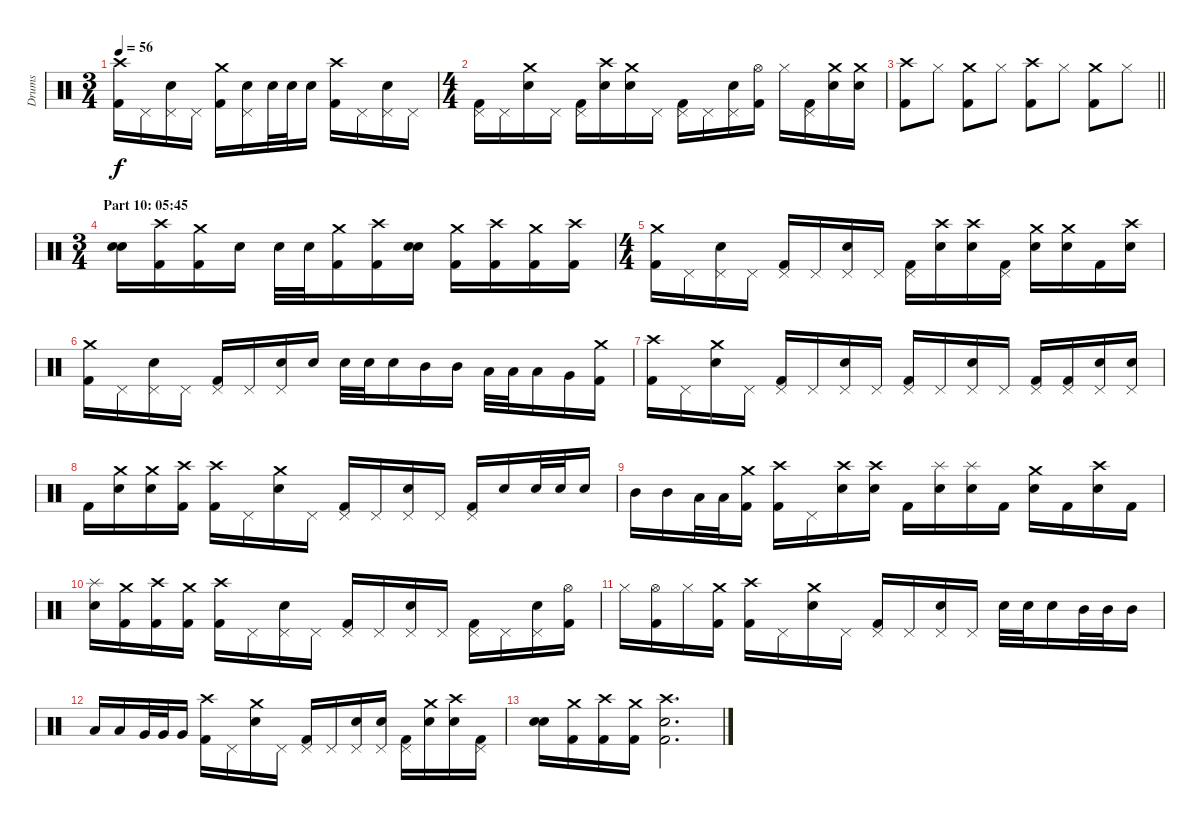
\track ("Drums" "Drums") {instrument percussion}
\staff {score}
\articulation defaults
\ts (3 4)
\tempo 56
\clef neutral
\ks c
("Crash high (hit)" "Kick (hit) 2").16{dy f} "Pedal Hi-Hat (hit)".16 ("Pedal Hi-Hat (hit)" "Electric Snare (hit)").16 "Pedal Hi-Hat (hit)".16 ("Crash medium (hit)" "Kick (hit) 2").16 ("Pedal Hi-Hat (hit)" "Electric Snare (hit)").16 "Electric Snare (hit)".32 "Electric Snare (hit)".32 "Electric Snare (hit)".16 ("Crash high (hit)" "Kick (hit) 2").16 "Pedal Hi-Hat (hit)".16 ("Pedal Hi-Hat (hit)" "Electric Snare (hit)").16 "Pedal Hi-Hat (hit)".16 |
\ts (4 4)
("Pedal Hi-Hat (hit)" "Kick (hit) 2").16 "Pedal Hi-Hat (hit)".16 ("Crash medium (hit)" "Electric Snare (hit)").16 "Pedal Hi-Hat (hit)".16 ("Pedal Hi-Hat (hit)" "Kick (hit) 2").16 ("Crash high (hit)" "Electric Snare (hit)").16 ("Crash medium (hit)" "Electric Snare (hit)").16 "Pedal Hi-Hat (hit)".16 ("Pedal Hi-Hat (hit)" "Kick (hit) 2").16 "Pedal Hi-Hat (hit)".16 ("Pedal Hi-Hat (hit)" "Electric Snare (hit)").16 ("Hi-Hat (open)" "Kick (hit) 2").16 "Hi-Hat (closed)".16 ("Pedal Hi-Hat (hit)" "Kick (hit) 2").16 ("Crash medium (hit)" "Electric Snare (hit)").16 ("Crash medium (hit)" "Electric Snare (hit)").16 |
\barLineRight lightlight
("Crash high (hit)" "Kick (hit) 2").8 "Hi-Hat (closed)".8 ("Crash medium (hit)" "Kick (hit) 2").8 "Hi-Hat (closed)".8 ("Crash high (hit)" "Kick (hit) 2").8 "Hi-Hat (closed)".8 ("Crash medium (hit)" "Kick (hit) 2").8 "Hi-Hat (closed)".8 |
\ts (3 4)
\section ("" "Part 10: 05:45")
("Electric Snare (hit)" "Electric Snare (hit)").16{bd 60} ("Crash high (hit)" "Kick (hit) 2").16 ("Crash medium (hit)" "Kick (hit) 2").16 "Electric Snare (hit)".16 "Electric Snare (hit)".32 "Electric Snare (hit)".32 ("Crash medium (hit)" "Kick (hit) 2").16 ("Crash high (hit)" "Kick (hit) 2").16 ("Electric Snare (hit)" "Electric Snare (hit)").16{bd 60} ("Crash medium (hit)" "Kick (hit) 2").16 ("Crash high (hit)" "Kick (hit) 2").16 ("Crash medium (hit)" "Kick (hit) 2").16 ("Crash high (hit)" "Kick (hit) 2").16 |
\ts (4 4)
("Crash medium (hit)" "Kick (hit) 2").16 "Pedal Hi-Hat (hit)".16 ("Pedal Hi-Hat (hit)" "Electric Snare (hit)").16 "Pedal Hi-Hat (hit)".16 ("Pedal Hi-Hat (hit)" "Kick (hit) 2").16 "Pedal Hi-Hat (hit)".16 ("Pedal Hi-Hat (hit)" "Electric Snare (hit)").16 "Pedal Hi-Hat (hit)".16 ("Pedal Hi-Hat (hit)" "Kick (hit) 2").16 ("Crash high (hit)" "Electric Snare (hit)").16 ("Crash high (hit)" "Electric Snare (hit)").16 ("Pedal Hi-Hat (hit)" "Kick (hit) 2").16 ("Crash medium (hit)" "Electric Snare (hit)").16 ("Crash medium (hit)" "Electric Snare (hit)").16 "Kick (hit) 2".16 ("Crash high (hit)" "Electric Snare (hit)").16 |
("Crash medium (hit)" "Kick (hit) 2").16 "Pedal Hi-Hat (hit)".16 ("Pedal Hi-Hat (hit)" "Electric Snare (hit)").16 "Pedal Hi-Hat (hit)".16 ("Pedal Hi-Hat (hit)" "Kick (hit) 2").16 "Pedal Hi-Hat (hit)".16 ("Pedal Hi-Hat (hit)" "Electric Snare (hit)").16 "Electric Snare (hit)".16 "Electric Snare (hit)".32 "Electric Snare (hit)".32 "Electric Snare (hit)".16 "Mid Tom (hit)".16 "Mid Tom (hit)".16 "Low Tom (hit)".32 "Low Tom (hit)".32 "Low Tom (hit)".16 "Very Low Tom (hit)".16 ("Crash medium (hit)" "Kick (hit) 2").16 |
("Crash high (hit)" "Kick (hit) 2").16 "Pedal Hi-Hat (hit)".16 ("Crash medium (hit)" "Electric Snare (hit)").16 "Pedal Hi-Hat (hit)".16 ("Pedal Hi-Hat (hit)" "Kick (hit) 2").16 "Pedal Hi-Hat (hit)".16 ("Pedal Hi-Hat (hit)" "Electric Snare (hit)").16 "Pedal Hi-Hat (hit)".16 ("Pedal Hi-Hat (hit)" "Kick (hit) 2").16 "Pedal Hi-Hat (hit)".16 ("Pedal Hi-Hat (hit)" "Electric Snare (hit)").16 "Pedal Hi-Hat (hit)".16 ("Pedal Hi-Hat (hit)" "Kick (hit) 2").16 ("Pedal Hi-Hat (hit)" "Kick (hit) 2").16 ("Pedal Hi-Hat (hit)" "Electric Snare (hit)").16 ("Pedal Hi-Hat (hit)" "Electric Snare (hit)").16 |
"Kick (hit) 2".16 ("Crash medium (hit)" "Electric Snare (hit)").16 ("Crash medium (hit)" "Electric Snare (hit)").16 ("Crash high (hit)" "Kick (hit) 2").16 ("Crash high (hit)" "Kick (hit) 2").16 "Pedal Hi-Hat (hit)".16 ("Crash medium (hit)" "Electric Snare (hit)").16 "Pedal Hi-Hat (hit)".16 ("Pedal Hi-Hat (hit)" "Kick (hit) 2").16 "Pedal Hi-Hat (hit)".16 ("Pedal Hi-Hat (hit)" "Electric Snare (hit)").16 "Pedal Hi-Hat (hit)".16 ("Pedal Hi-Hat (hit)" "Kick (hit) 2").16 "Electric Snare (hit)".16 "Electric Snare (hit)".32 "Electric Snare (hit)".32 "Electric Snare (hit)".16 |
"Mid Tom (hit)".16 "Mid Tom (hit)".16 "Low Tom (hit)".32 "Low Tom (hit)".32 ("Crash medium (hit)" "Kick (hit) 2").16 ("Crash high (hit)" "Kick (hit) 2").16 "Pedal Hi-Hat (hit)".16 ("Crash high (hit)" "Electric Snare (hit)").16 ("Crash high (hit)" "Electric Snare (hit)").16 "Kick (hit) 2".16 ("Splash (hit)" "Electric Snare (hit)").16 ("Splash (hit)" "Electric Snare (hit)").16 "Kick (hit) 2".16 ("Crash medium (hit)" "Electric Snare (hit)").16 "Kick (hit) 2".16 ("Crash high (hit)" "Electric Snare (hit)").16 "Kick (hit) 2".16 |
("Splash (hit)" "Electric Snare (hit)").16 ("Crash medium (hit)" "Kick (hit) 2").16 ("Crash high (hit)" "Kick (hit) 2").16 ("Crash medium (hit)" "Kick (hit) 2").16 ("Crash high (hit)" "Kick (hit) 2").16 "Pedal Hi-Hat (hit)".16 ("Pedal Hi-Hat (hit)" "Electric Snare (hit)").16 "Pedal Hi-Hat (hit)".16 ("Pedal Hi-Hat (hit)" "Kick (hit) 2").16 "Pedal Hi-Hat (hit)".16 ("Pedal Hi-Hat (hit)" "Electric Snare (hit)").16 "Pedal Hi-Hat (hit)".16 ("Pedal Hi-Hat (hit)" "Kick (hit) 2").16 "Pedal Hi-Hat (hit)".16 ("Pedal Hi-Hat (hit)" "Electric Snare (hit)").16 ("Hi-Hat (open)" "Kick (hit) 2").16 |
"Hi-Hat (closed)".16 ("Hi-Hat (open)" "Kick (hit) 2").16 "Hi-Hat (closed)".16 ("Crash medium (hit)" "Kick (hit) 2").16 ("Crash high (hit)" "Kick (hit) 2").16 "Pedal Hi-Hat (hit)".16 ("Crash medium (hit)" "Electric Snare (hit)").16 "Pedal Hi-Hat (hit)".16 ("Pedal Hi-Hat (hit)" "Kick (hit) 2").16 "Pedal Hi-Hat (hit)".16 ("Pedal Hi-Hat (hit)" "Electric Snare (hit)").16 "Pedal Hi-Hat (hit)".16 "Electric Snare (hit)".32 "Electric Snare (hit)".32 "Electric Snare (hit)".16 "Mid Tom (hit)".32 "Mid Tom (hit)".32 "Mid Tom (hit)".16 |
"Low Tom (hit)".16 "Low Tom (hit)".16 "Very Low Tom (hit)".32 "Very Low Tom (hit)".32 "Very Low Tom (hit)".16 ("Crash high (hit)" "Kick (hit) 2").16 "Pedal Hi-Hat (hit)".16 ("Crash medium (hit)" "Electric Snare (hit)").16 "Pedal Hi-Hat (hit)".16 ("Pedal Hi-Hat (hit)" "Kick (hit) 2").16 "Pedal Hi-Hat (hit)".16 ("Pedal Hi-Hat (hit)" "Electric Snare (hit)").16 ("Pedal Hi-Hat (hit)" "Electric Snare (hit)").16 ("Pedal Hi-Hat (hit)" "Kick (hit) 2").16 ("Crash medium (hit)" "Electric Snare (hit)").16 ("Crash high (hit)" "Electric Snare (hit)").16 ("Pedal Hi-Hat (hit)" "Kick (hit) 2").16 |
("Electric Snare (hit)" "Electric Snare (hit)").16{bd 60} ("Crash medium (hit)" "Kick (hit) 2").16 ("Crash high (hit)" "Kick (hit) 2").16 ("Crash medium (hit)" "Kick (hit) 2").16 ("Crash high (hit)" "Electric Snare (hit)" "Kick (hit) 2").2{d}
